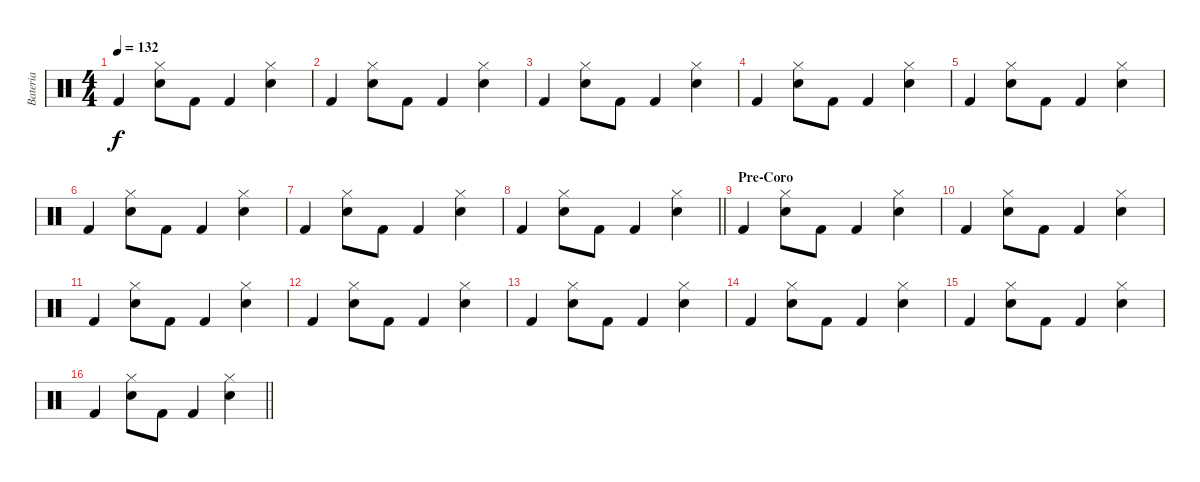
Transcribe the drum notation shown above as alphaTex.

\track ("Bateria" "Bateria") {instrument percussion}
\staff {score}
\articulation defaults
\ts (4 4)
\tempo 132
\clef neutral
\ks c "Kick (hit) 2".4{dy f}
("Electric Snare (hit)" "Hi-Hat (closed)").8 "Kick (hit) 2".8 "Kick (hit) 2".4 ("Electric Snare (hit)" "Hi-Hat (closed)").4 |
"Kick (hit) 2".4 ("Electric Snare (hit)" "Hi-Hat (closed)").8 "Kick (hit) 2".8 "Kick (hit) 2".4 ("Electric Snare (hit)" "Hi-Hat (closed)").4 |
"Kick (hit) 2".4 ("Electric Snare (hit)" "Hi-Hat (closed)").8 "Kick (hit) 2".8 "Kick (hit) 2".4 ("Electric Snare (hit)" "Hi-Hat (closed)").4 |
"Kick (hit) 2".4 ("Electric Snare (hit)" "Hi-Hat (closed)").8 "Kick (hit) 2".8 "Kick (hit) 2".4 ("Electric Snare (hit)" "Hi-Hat (closed)").4 |
"Kick (hit) 2".4 ("Electric Snare (hit)" "Hi-Hat (closed)").8 "Kick (hit) 2".8 "Kick (hit) 2".4 ("Electric Snare (hit)" "Hi-Hat (closed)").4 |
"Kick (hit) 2".4 ("Electric Snare (hit)" "Hi-Hat (closed)").8 "Kick (hit) 2".8 "Kick (hit) 2".4 ("Electric Snare (hit)" "Hi-Hat (closed)").4 |
"Kick (hit) 2".4 ("Electric Snare (hit)" "Hi-Hat (closed)").8 "Kick (hit) 2".8 "Kick (hit) 2".4 ("Electric Snare (hit)" "Hi-Hat (closed)").4 |
\barLineRight lightlight "Kick (hit) 2".4
("Electric Snare (hit)" "Hi-Hat (closed)").8 "Kick (hit) 2".8 "Kick (hit) 2".4 ("Electric Snare (hit)" "Hi-Hat (closed)").4 |
\section ("" "Pre-Coro")
"Kick (hit) 2".4 ("Electric Snare (hit)" "Hi-Hat (closed)").8 "Kick (hit) 2".8 "Kick (hit) 2".4 ("Electric Snare (hit)" "Hi-Hat (closed)").4 |
"Kick (hit) 2".4 ("Electric Snare (hit)" "Hi-Hat (closed)").8 "Kick (hit) 2".8 "Kick (hit) 2".4 ("Electric Snare (hit)" "Hi-Hat (closed)").4 |
"Kick (hit) 2".4 ("Electric Snare (hit)" "Hi-Hat (closed)").8 "Kick (hit) 2".8 "Kick (hit) 2".4 ("Electric Snare (hit)" "Hi-Hat (closed)").4 |
"Kick (hit) 2".4 ("Electric Snare (hit)" "Hi-Hat (closed)").8 "Kick (hit) 2".8 "Kick (hit) 2".4 ("Electric Snare (hit)" "Hi-Hat (closed)").4 |
"Kick (hit) 2".4 ("Electric Snare (hit)" "Hi-Hat (closed)").8 "Kick (hit) 2".8 "Kick (hit) 2".4 ("Electric Snare (hit)" "Hi-Hat (closed)").4 |
"Kick (hit) 2".4 ("Electric Snare (hit)" "Hi-Hat (closed)").8 "Kick (hit) 2".8 "Kick (hit) 2".4 ("Electric Snare (hit)" "Hi-Hat (closed)").4 |
"Kick (hit) 2".4 ("Electric Snare (hit)" "Hi-Hat (closed)").8 "Kick (hit) 2".8 "Kick (hit) 2".4 ("Electric Snare (hit)" "Hi-Hat (closed)").4 |
\barLineRight lightlight "Kick (hit) 2".4
("Electric Snare (hit)" "Hi-Hat (closed)").8 "Kick (hit) 2".8 "Kick (hit) 2".4 ("Electric Snare (hit)" "Hi-Hat (closed)").4
